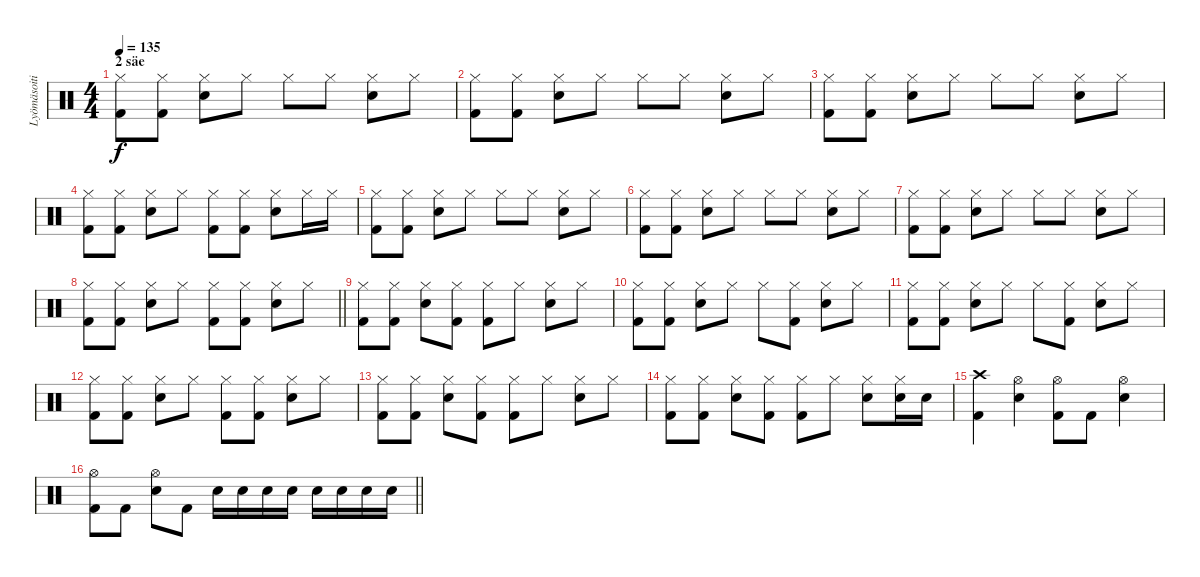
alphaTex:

\track ("Lyömäsoitin" "Lyömäsoiti") {instrument percussion}
\staff {score}
\articulation defaults
\ts (4 4)
\section ("" "2 säe")
\tempo 135
\clef neutral
\ks c
("Hi-Hat (closed)" "Kick (hit) 2").8{dy f} ("Hi-Hat (closed)" "Kick (hit) 2").8 ("Hi-Hat (closed)" "Electric Snare (hit)").8 "Hi-Hat (closed)".8 "Hi-Hat (closed)".8 "Hi-Hat (closed)".8 ("Hi-Hat (closed)" "Electric Snare (hit)").8 "Hi-Hat (closed)".8 |
("Hi-Hat (closed)" "Kick (hit) 2").8 ("Hi-Hat (closed)" "Kick (hit) 2").8 ("Hi-Hat (closed)" "Electric Snare (hit)").8 "Hi-Hat (closed)".8 "Hi-Hat (closed)".8 "Hi-Hat (closed)".8 ("Hi-Hat (closed)" "Electric Snare (hit)").8 "Hi-Hat (closed)".8 |
("Hi-Hat (closed)" "Kick (hit) 2").8 ("Hi-Hat (closed)" "Kick (hit) 2").8 ("Hi-Hat (closed)" "Electric Snare (hit)").8 "Hi-Hat (closed)".8 "Hi-Hat (closed)".8 "Hi-Hat (closed)".8 ("Hi-Hat (closed)" "Electric Snare (hit)").8 "Hi-Hat (closed)".8 |
("Hi-Hat (closed)" "Kick (hit) 2").8 ("Hi-Hat (closed)" "Kick (hit) 2").8 ("Hi-Hat (closed)" "Electric Snare (hit)").8 "Hi-Hat (closed)".8 ("Hi-Hat (closed)" "Kick (hit) 2").8 ("Hi-Hat (closed)" "Kick (hit) 2").8 ("Hi-Hat (closed)" "Electric Snare (hit)").8 "Hi-Hat (closed)".16 "Hi-Hat (closed)".16 |
("Hi-Hat (closed)" "Kick (hit) 2").8 ("Hi-Hat (closed)" "Kick (hit) 2").8 ("Hi-Hat (closed)" "Electric Snare (hit)").8 "Hi-Hat (closed)".8 "Hi-Hat (closed)".8 "Hi-Hat (closed)".8 ("Hi-Hat (closed)" "Electric Snare (hit)").8 "Hi-Hat (closed)".8 |
("Hi-Hat (closed)" "Kick (hit) 2").8 ("Hi-Hat (closed)" "Kick (hit) 2").8 ("Hi-Hat (closed)" "Electric Snare (hit)").8 "Hi-Hat (closed)".8 "Hi-Hat (closed)".8 "Hi-Hat (closed)".8 ("Hi-Hat (closed)" "Electric Snare (hit)").8 "Hi-Hat (closed)".8 |
("Hi-Hat (closed)" "Kick (hit) 2").8 ("Hi-Hat (closed)" "Kick (hit) 2").8 ("Hi-Hat (closed)" "Electric Snare (hit)").8 "Hi-Hat (closed)".8 "Hi-Hat (closed)".8 "Hi-Hat (closed)".8 ("Hi-Hat (closed)" "Electric Snare (hit)").8 "Hi-Hat (closed)".8 |
\barLineRight lightlight
("Hi-Hat (closed)" "Kick (hit) 2").8 ("Hi-Hat (closed)" "Kick (hit) 2").8 ("Hi-Hat (closed)" "Electric Snare (hit)").8 "Hi-Hat (closed)".8 ("Hi-Hat (closed)" "Kick (hit) 2").8 ("Hi-Hat (closed)" "Kick (hit) 2").8 ("Hi-Hat (closed)" "Electric Snare (hit)").8 "Hi-Hat (closed)".8 |
("Hi-Hat (closed)" "Kick (hit) 2").8 ("Hi-Hat (closed)" "Kick (hit) 2").8 ("Hi-Hat (closed)" "Electric Snare (hit)").8 ("Hi-Hat (closed)" "Kick (hit) 2").8 ("Hi-Hat (closed)" "Kick (hit) 2").8 "Hi-Hat (closed)".8 ("Hi-Hat (closed)" "Electric Snare (hit)").8 "Hi-Hat (closed)".8 |
("Hi-Hat (closed)" "Kick (hit) 2").8 ("Hi-Hat (closed)" "Kick (hit) 2").8 ("Hi-Hat (closed)" "Electric Snare (hit)").8 "Hi-Hat (closed)".8 "Hi-Hat (closed)".8 ("Hi-Hat (closed)" "Kick (hit) 2").8 ("Hi-Hat (closed)" "Electric Snare (hit)").8 "Hi-Hat (closed)".8 |
("Hi-Hat (closed)" "Kick (hit) 2").8 ("Hi-Hat (closed)" "Kick (hit) 2").8 ("Hi-Hat (closed)" "Electric Snare (hit)").8 "Hi-Hat (closed)".8 "Hi-Hat (closed)".8 ("Hi-Hat (closed)" "Kick (hit) 2").8 ("Hi-Hat (closed)" "Electric Snare (hit)").8 "Hi-Hat (closed)".8 |
("Hi-Hat (closed)" "Kick (hit) 2").8 ("Hi-Hat (closed)" "Kick (hit) 2").8 ("Hi-Hat (closed)" "Electric Snare (hit)").8 "Hi-Hat (closed)".8 ("Hi-Hat (closed)" "Kick (hit) 2").8 ("Hi-Hat (closed)" "Kick (hit) 2").8 ("Hi-Hat (closed)" "Electric Snare (hit)").8 "Hi-Hat (closed)".8 |
("Hi-Hat (closed)" "Kick (hit) 2").8 ("Hi-Hat (closed)" "Kick (hit) 2").8 ("Hi-Hat (closed)" "Electric Snare (hit)").8 ("Hi-Hat (closed)" "Kick (hit) 2").8 ("Hi-Hat (closed)" "Kick (hit) 2").8 "Hi-Hat (closed)".8 ("Hi-Hat (closed)" "Electric Snare (hit)").8 "Hi-Hat (closed)".8 |
("Hi-Hat (closed)" "Kick (hit) 2").8 ("Hi-Hat (closed)" "Kick (hit) 2").8 ("Hi-Hat (closed)" "Electric Snare (hit)").8 ("Hi-Hat (closed)" "Kick (hit) 2").8 ("Hi-Hat (closed)" "Kick (hit) 2").8 "Hi-Hat (closed)".8 ("Hi-Hat (closed)" "Electric Snare (hit)").8 ("Hi-Hat (closed)" "Electric Snare (hit)").16 "Electric Snare (hit)".16 |
("Crash high (hit)" "Kick (hit) 2").4 ("Hi-Hat (open)" "Electric Snare (hit)").4 ("Hi-Hat (open)" "Kick (hit) 2").8 "Kick (hit) 2".8 ("Hi-Hat (open)" "Electric Snare (hit)").4 |
\barLineRight lightlight
("Hi-Hat (open)" "Kick (hit) 2").8 "Kick (hit) 2".8 ("Hi-Hat (open)" "Electric Snare (hit)").8 "Kick (hit) 2".8 "Electric Snare (hit)".16 "Electric Snare (hit)".16 "Electric Snare (hit)".16 "Electric Snare (hit)".16 "Electric Snare (hit)".16 "Electric Snare (hit)".16 "Electric Snare (hit)".16 "Electric Snare (hit)".16
